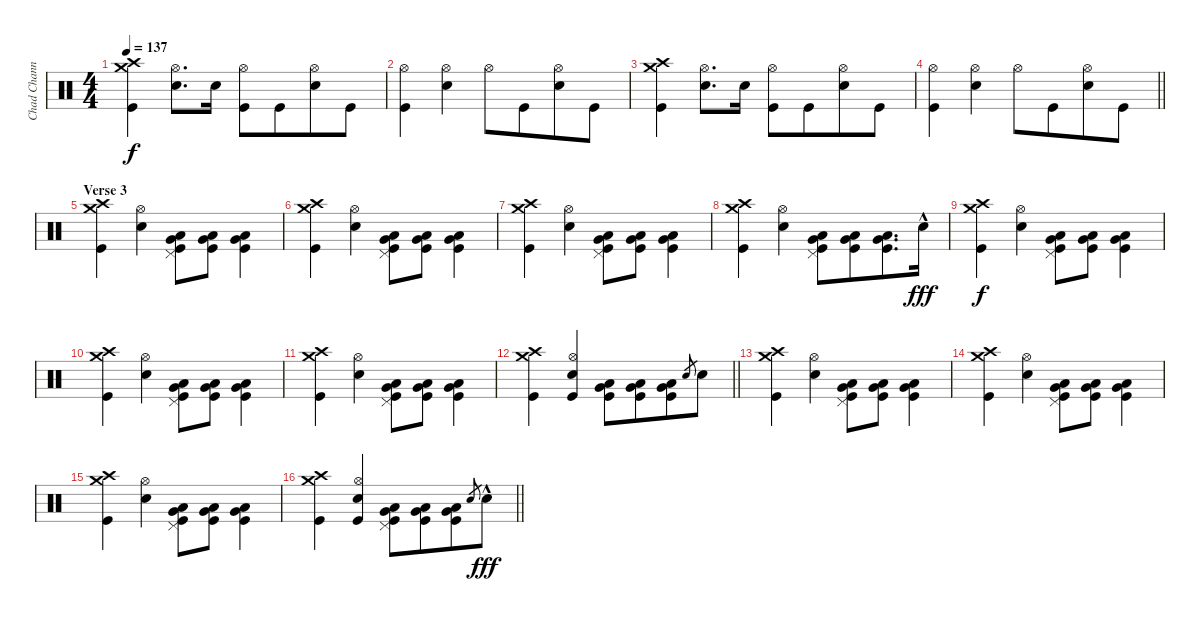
\track ("Chad Channing" "Chad Chann") {instrument percussion}
\staff {score}
\articulation defaults
\ts (4 4)
\tempo 137
\clef neutral
\ks c
("Crash medium (hit)" "Crash high (hit)" "Kick (hit)").4{dy f} ("Hi-Hat (open)" "Snare (hit) 2").8{d} "Snare (hit) 2".16 ("Hi-Hat (open)" "Kick (hit)").8 "Kick (hit)".8{beam merge} ("Hi-Hat (open)" "Snare (hit) 2").8 "Kick (hit)".8 |
("Hi-Hat (open)" "Kick (hit)").4 ("Hi-Hat (open)" "Snare (hit) 2").4 "Hi-Hat (open)".8 "Kick (hit)".8{beam merge} ("Hi-Hat (open)" "Snare (hit) 2").8 "Kick (hit)".8 |
("Crash medium (hit)" "Crash high (hit)" "Kick (hit)").4 ("Hi-Hat (open)" "Snare (hit) 2").8{d} "Snare (hit) 2".16 ("Hi-Hat (open)" "Kick (hit)").8 "Kick (hit)".8{beam merge} ("Hi-Hat (open)" "Snare (hit) 2").8 "Kick (hit)".8 |
\barLineRight lightlight
("Hi-Hat (open)" "Kick (hit)").4 ("Hi-Hat (open)" "Snare (hit) 2").4 "Hi-Hat (open)".8 "Kick (hit)".8{beam merge} ("Hi-Hat (open)" "Snare (hit) 2").8 "Kick (hit)".8 |
\section ("" "Verse 3")
("Crash medium (hit)" "Crash high (hit)" "Kick (hit)").4 ("Hi-Hat (open)" "Snare (hit) 2").4 ("Pedal Hi-Hat (hit)" "Very Low Tom (hit)" "Low Floor Tom (hit)" "Kick (hit)").8{beam Down} ("Very Low Tom (hit)" "Low Floor Tom (hit)" "Kick (hit)").8{beam Down} ("Very Low Tom (hit)" "Low Floor Tom (hit)" "Kick (hit)").4{beam Down} |
("Crash medium (hit)" "Crash high (hit)" "Kick (hit)").4 ("Hi-Hat (open)" "Snare (hit) 2").4 ("Pedal Hi-Hat (hit)" "Very Low Tom (hit)" "Low Floor Tom (hit)" "Kick (hit)").8{beam Down} ("Very Low Tom (hit)" "Low Floor Tom (hit)" "Kick (hit)").8{beam Down} ("Very Low Tom (hit)" "Low Floor Tom (hit)" "Kick (hit)").4{beam Down} |
("Crash medium (hit)" "Crash high (hit)" "Kick (hit)").4 ("Hi-Hat (open)" "Snare (hit) 2").4 ("Pedal Hi-Hat (hit)" "Very Low Tom (hit)" "Low Floor Tom (hit)" "Kick (hit)").8{beam Down} ("Very Low Tom (hit)" "Low Floor Tom (hit)" "Kick (hit)").8{beam Down} ("Very Low Tom (hit)" "Low Floor Tom (hit)" "Kick (hit)").4{beam Down} |
("Crash medium (hit)" "Crash high (hit)" "Kick (hit)").4 ("Hi-Hat (open)" "Snare (hit) 2").4 ("Pedal Hi-Hat (hit)" "Very Low Tom (hit)" "Low Floor Tom (hit)" "Kick (hit)").8{beam Down} ("Very Low Tom (hit)" "Low Floor Tom (hit)" "Kick (hit)").8{beam Down beam merge} ("Very Low Tom (hit)" "Low Floor Tom (hit)" "Kick (hit)").8{d beam Down} "Snare (hit) 2"{hac}.16{dy fff beam Down} |
("Crash medium (hit)" "Crash high (hit)" "Kick (hit)").4{dy f} ("Hi-Hat (open)" "Snare (hit) 2").4 ("Pedal Hi-Hat (hit)" "Very Low Tom (hit)" "Low Floor Tom (hit)" "Kick (hit)").8{beam Down} ("Very Low Tom (hit)" "Low Floor Tom (hit)" "Kick (hit)").8{beam Down} ("Very Low Tom (hit)" "Low Floor Tom (hit)" "Kick (hit)").4{beam Down} |
("Crash medium (hit)" "Crash high (hit)" "Kick (hit)").4 ("Hi-Hat (open)" "Snare (hit) 2").4 ("Pedal Hi-Hat (hit)" "Very Low Tom (hit)" "Low Floor Tom (hit)" "Kick (hit)").8{beam Down} ("Very Low Tom (hit)" "Low Floor Tom (hit)" "Kick (hit)").8{beam Down} ("Very Low Tom (hit)" "Low Floor Tom (hit)" "Kick (hit)").4{beam Down} |
("Crash medium (hit)" "Crash high (hit)" "Kick (hit)").4 ("Hi-Hat (open)" "Snare (hit) 2").4 ("Pedal Hi-Hat (hit)" "Very Low Tom (hit)" "Low Floor Tom (hit)" "Kick (hit)").8{beam Down} ("Very Low Tom (hit)" "Low Floor Tom (hit)" "Kick (hit)").8{beam Down} ("Very Low Tom (hit)" "Low Floor Tom (hit)" "Kick (hit)").4{beam Down} |
\barLineRight lightlight
("Crash medium (hit)" "Crash high (hit)" "Kick (hit)").4 ("Hi-Hat (open)" "Snare (hit) 2" "Kick (hit)").4 ("Very Low Tom (hit)" "Low Floor Tom (hit)" "Kick (hit)").8{beam Down} ("Very Low Tom (hit)" "Low Floor Tom (hit)" "Kick (hit)").8{beam Down beam merge} ("Very Low Tom (hit)" "Low Floor Tom (hit)" "Kick (hit)").8{beam Down} "Snare (hit) 2".8{gr} "Snare (hit) 2".8{beam Down} |
("Crash medium (hit)" "Crash high (hit)" "Kick (hit)").4 ("Hi-Hat (open)" "Snare (hit) 2").4 ("Pedal Hi-Hat (hit)" "Very Low Tom (hit)" "Low Floor Tom (hit)" "Kick (hit)").8{beam Down} ("Very Low Tom (hit)" "Low Floor Tom (hit)" "Kick (hit)").8{beam Down} ("Very Low Tom (hit)" "Low Floor Tom (hit)" "Kick (hit)").4{beam Down} |
("Crash medium (hit)" "Crash high (hit)" "Kick (hit)").4 ("Hi-Hat (open)" "Snare (hit) 2").4 ("Pedal Hi-Hat (hit)" "Very Low Tom (hit)" "Low Floor Tom (hit)" "Kick (hit)").8{beam Down} ("Very Low Tom (hit)" "Low Floor Tom (hit)" "Kick (hit)").8{beam Down} ("Very Low Tom (hit)" "Low Floor Tom (hit)" "Kick (hit)").4{beam Down} |
("Crash medium (hit)" "Crash high (hit)" "Kick (hit)").4 ("Hi-Hat (open)" "Snare (hit) 2").4 ("Pedal Hi-Hat (hit)" "Very Low Tom (hit)" "Low Floor Tom (hit)" "Kick (hit)").8{beam Down} ("Very Low Tom (hit)" "Low Floor Tom (hit)" "Kick (hit)").8{beam Down} ("Very Low Tom (hit)" "Low Floor Tom (hit)" "Kick (hit)").4{beam Down} |
\barLineRight lightlight
("Crash medium (hit)" "Crash high (hit)" "Kick (hit)").4 ("Hi-Hat (open)" "Snare (hit) 2" "Kick (hit)").4 ("Pedal Hi-Hat (hit)" "Very Low Tom (hit)" "Low Floor Tom (hit)" "Kick (hit)").8{beam Down} ("Very Low Tom (hit)" "Low Floor Tom (hit)" "Kick (hit)").8{beam Down beam merge} ("Very Low Tom (hit)" "Low Floor Tom (hit)" "Kick (hit)").8{beam Down} "Snare (hit) 2".8{gr} "Snare (hit) 2"{hac}.8{dy fff beam Down}
